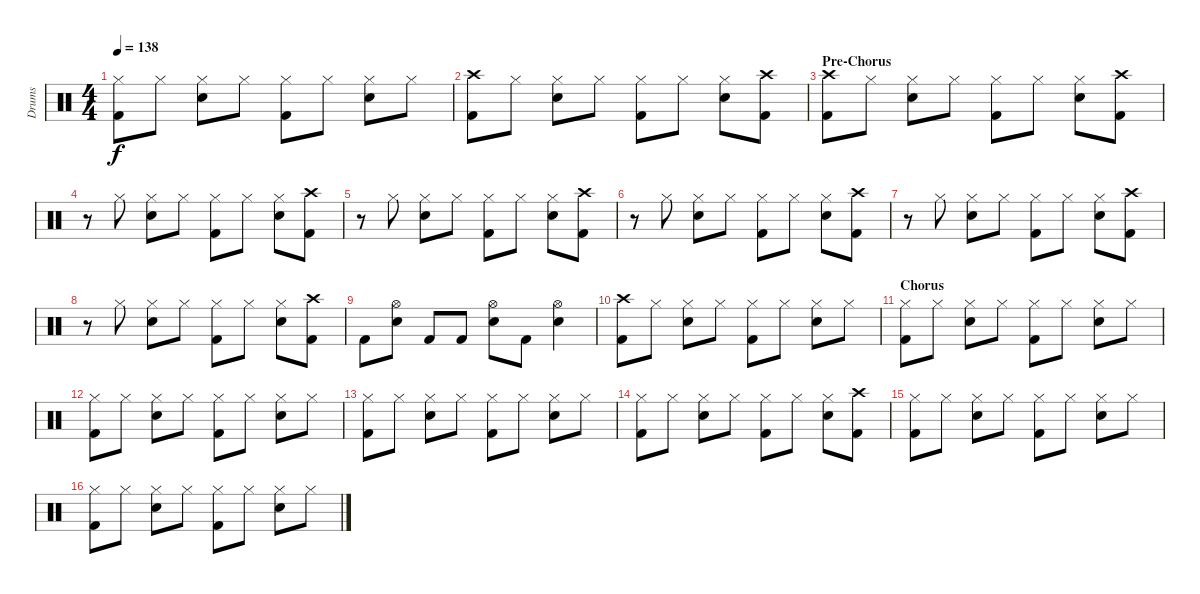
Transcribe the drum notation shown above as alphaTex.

\track ("Drums" "Drums") {instrument percussion}
\staff {score}
\articulation defaults
\ts (4 4)
\tempo 138
\clef neutral
\ks c
("Hi-Hat (closed)" "Kick (hit) 2").8{dy f} "Hi-Hat (closed)".8 ("Hi-Hat (closed)" "Snare (hit) 2").8 "Hi-Hat (closed)".8 ("Hi-Hat (closed)" "Kick (hit) 2").8 "Hi-Hat (closed)".8 ("Hi-Hat (closed)" "Snare (hit) 2").8 "Hi-Hat (closed)".8 |
("Crash high (hit)" "Kick (hit) 2").8 "Hi-Hat (closed)".8 ("Hi-Hat (closed)" "Snare (hit) 2").8 "Hi-Hat (closed)".8 ("Hi-Hat (closed)" "Kick (hit) 2").8 "Hi-Hat (closed)".8 ("Hi-Hat (closed)" "Snare (hit) 2").8 ("Crash high (hit)" "Kick (hit) 2").8 |
\section ("" "Pre-Chorus")
("Crash high (hit)" "Kick (hit) 2").8 "Hi-Hat (closed)".8 ("Hi-Hat (closed)" "Snare (hit) 2").8 "Hi-Hat (closed)".8 ("Hi-Hat (closed)" "Kick (hit) 2").8 "Hi-Hat (closed)".8 ("Hi-Hat (closed)" "Snare (hit) 2").8 ("Crash high (hit)" "Kick (hit) 2").8 |
r.8 "Hi-Hat (closed)".8 ("Hi-Hat (closed)" "Snare (hit) 2").8 "Hi-Hat (closed)".8 ("Hi-Hat (closed)" "Kick (hit) 2").8 "Hi-Hat (closed)".8 ("Hi-Hat (closed)" "Snare (hit) 2").8 ("Crash high (hit)" "Kick (hit) 2").8 |
r.8 "Hi-Hat (closed)".8 ("Hi-Hat (closed)" "Snare (hit) 2").8 "Hi-Hat (closed)".8 ("Hi-Hat (closed)" "Kick (hit) 2").8 "Hi-Hat (closed)".8 ("Hi-Hat (closed)" "Snare (hit) 2").8 ("Crash high (hit)" "Kick (hit) 2").8 |
r.8 "Hi-Hat (closed)".8 ("Hi-Hat (closed)" "Snare (hit) 2").8 "Hi-Hat (closed)".8 ("Hi-Hat (closed)" "Kick (hit) 2").8 "Hi-Hat (closed)".8 ("Hi-Hat (closed)" "Snare (hit) 2").8 ("Crash high (hit)" "Kick (hit) 2").8 |
r.8 "Hi-Hat (closed)".8 ("Hi-Hat (closed)" "Snare (hit) 2").8 "Hi-Hat (closed)".8 ("Hi-Hat (closed)" "Kick (hit) 2").8 "Hi-Hat (closed)".8 ("Hi-Hat (closed)" "Snare (hit) 2").8 ("Crash high (hit)" "Kick (hit) 2").8 |
r.8 "Hi-Hat (closed)".8 ("Hi-Hat (closed)" "Snare (hit) 2").8 "Hi-Hat (closed)".8 ("Hi-Hat (closed)" "Kick (hit) 2").8 "Hi-Hat (closed)".8 ("Hi-Hat (closed)" "Snare (hit) 2").8 ("Crash high (hit)" "Kick (hit) 2").8 |
"Kick (hit) 2".8 ("Hi-Hat (open)" "Snare (hit) 2").8 "Kick (hit) 2".8 "Kick (hit) 2".8 ("Hi-Hat (open)" "Snare (hit) 2").8 "Kick (hit) 2".8 ("Hi-Hat (open)" "Snare (hit) 2").4 |
("Crash high (hit)" "Kick (hit) 2").8 "Hi-Hat (closed)".8 ("Hi-Hat (closed)" "Snare (hit) 2").8 "Hi-Hat (closed)".8 ("Hi-Hat (closed)" "Kick (hit) 2").8 "Hi-Hat (closed)".8 ("Hi-Hat (closed)" "Snare (hit) 2").8 "Hi-Hat (closed)".8 |
\section ("" "Chorus")
("Hi-Hat (closed)" "Kick (hit) 2").8 "Hi-Hat (closed)".8 ("Hi-Hat (closed)" "Snare (hit) 2").8 "Hi-Hat (closed)".8 ("Hi-Hat (closed)" "Kick (hit) 2").8 "Hi-Hat (closed)".8 ("Hi-Hat (closed)" "Snare (hit) 2").8 "Hi-Hat (closed)".8 |
("Hi-Hat (closed)" "Kick (hit) 2").8 "Hi-Hat (closed)".8 ("Hi-Hat (closed)" "Snare (hit) 2").8 "Hi-Hat (closed)".8 ("Hi-Hat (closed)" "Kick (hit) 2").8 "Hi-Hat (closed)".8 ("Hi-Hat (closed)" "Snare (hit) 2").8 "Hi-Hat (closed)".8 |
("Hi-Hat (closed)" "Kick (hit) 2").8 "Hi-Hat (closed)".8 ("Hi-Hat (closed)" "Snare (hit) 2").8 "Hi-Hat (closed)".8 ("Hi-Hat (closed)" "Kick (hit) 2").8 "Hi-Hat (closed)".8 ("Hi-Hat (closed)" "Snare (hit) 2").8 "Hi-Hat (closed)".8 |
("Hi-Hat (closed)" "Kick (hit) 2").8 "Hi-Hat (closed)".8 ("Hi-Hat (closed)" "Snare (hit) 2").8 "Hi-Hat (closed)".8 ("Hi-Hat (closed)" "Kick (hit) 2").8 "Hi-Hat (closed)".8 ("Hi-Hat (closed)" "Snare (hit) 2").8 ("Crash high (hit)" "Kick (hit) 2").8 |
("Hi-Hat (closed)" "Kick (hit) 2").8 "Hi-Hat (closed)".8 ("Hi-Hat (closed)" "Snare (hit) 2").8 "Hi-Hat (closed)".8 ("Hi-Hat (closed)" "Kick (hit) 2").8 "Hi-Hat (closed)".8 ("Hi-Hat (closed)" "Snare (hit) 2").8 "Hi-Hat (closed)".8 |
("Hi-Hat (closed)" "Kick (hit) 2").8 "Hi-Hat (closed)".8 ("Hi-Hat (closed)" "Snare (hit) 2").8 "Hi-Hat (closed)".8 ("Hi-Hat (closed)" "Kick (hit) 2").8 "Hi-Hat (closed)".8 ("Hi-Hat (closed)" "Snare (hit) 2").8 "Hi-Hat (closed)".8
